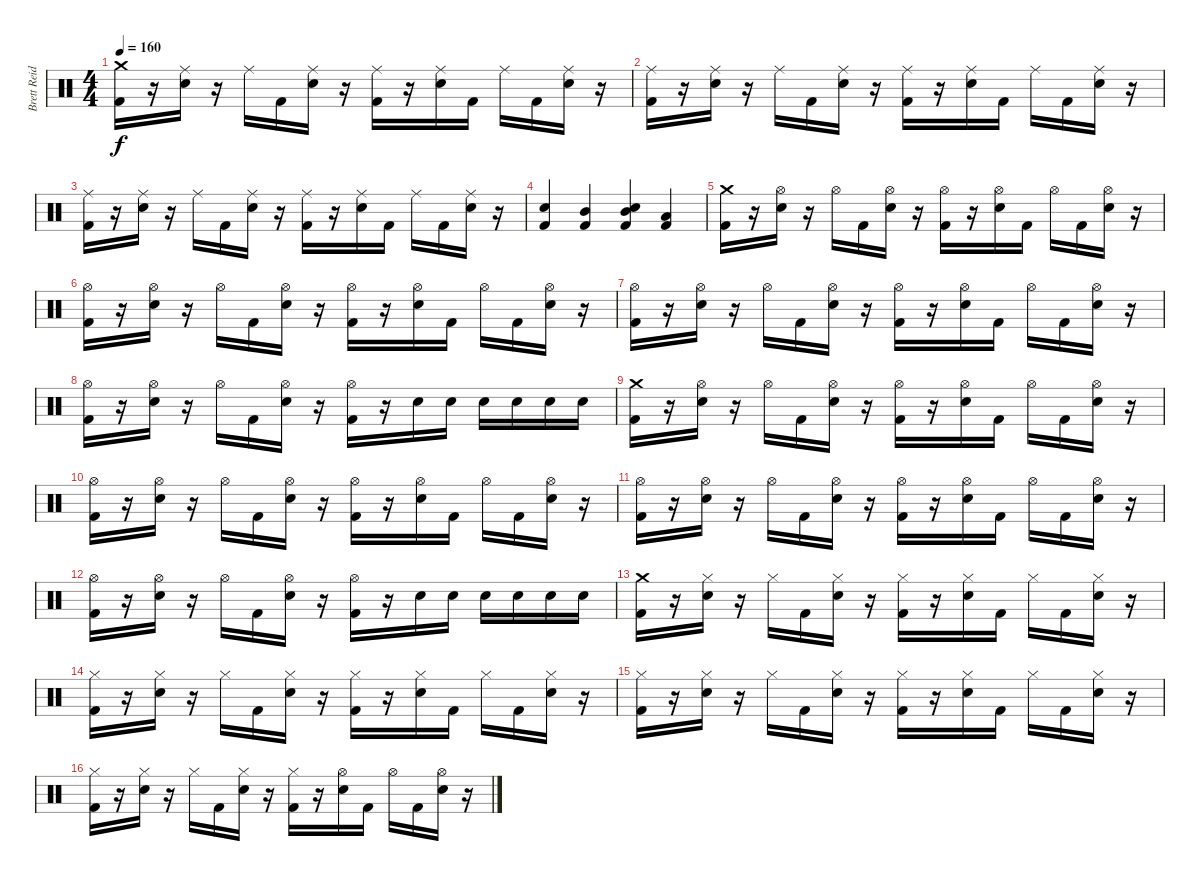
\track ("Brett Reid" "Brett Reid") {instrument percussion}
\staff {score}
\articulation defaults
\ts (4 4)
\tempo 160
\clef neutral
\ks c
("Crash medium (hit)" "Kick (hit) 2").16{dy f} r.16 ("Ride (middle)" "Snare (hit) 2").16 r.16 "Ride (middle)".16 "Kick (hit) 2".16 ("Ride (middle)" "Snare (hit) 2").16 r.16 ("Ride (middle)" "Kick (hit) 2").16 r.16 ("Ride (middle)" "Snare (hit) 2").16 "Kick (hit) 2".16 "Ride (middle)".16 "Kick (hit) 2".16 ("Ride (middle)" "Snare (hit) 2").16 r.16 |
("Ride (middle)" "Kick (hit) 2").16 r.16 ("Ride (middle)" "Snare (hit) 2").16 r.16 "Ride (middle)".16 "Kick (hit) 2".16 ("Ride (middle)" "Snare (hit) 2").16 r.16 ("Ride (middle)" "Kick (hit) 2").16 r.16 ("Ride (middle)" "Snare (hit) 2").16 "Kick (hit) 2".16 "Ride (middle)".16 "Kick (hit) 2".16 ("Ride (middle)" "Snare (hit) 2").16 r.16 |
("Ride (middle)" "Kick (hit) 2").16 r.16 ("Ride (middle)" "Snare (hit) 2").16 r.16 "Ride (middle)".16 "Kick (hit) 2".16 ("Ride (middle)" "Snare (hit) 2").16 r.16 ("Ride (middle)" "Kick (hit) 2").16 r.16 ("Ride (middle)" "Snare (hit) 2").16 "Kick (hit) 2".16 "Ride (middle)".16 "Kick (hit) 2".16 ("Ride (middle)" "Snare (hit) 2").16 r.16 |
("Snare (hit) 2" "Kick (hit) 2").4 ("Mid Tom (hit)" "Kick (hit) 2").4 ("Mid Tom (hit)" "Snare (hit) 2" "Kick (hit) 2").4 ("Low Floor Tom (hit)" "Kick (hit) 2").4 |
("Crash medium (hit)" "Kick (hit) 2").16 r.16 ("Hi-Hat (open)" "Snare (hit) 2").16 r.16 "Hi-Hat (open)".16 "Kick (hit) 2".16 ("Hi-Hat (open)" "Snare (hit) 2").16 r.16 ("Hi-Hat (open)" "Kick (hit) 2").16 r.16 ("Hi-Hat (open)" "Snare (hit) 2").16 "Kick (hit) 2".16 "Hi-Hat (open)".16 "Kick (hit) 2".16 ("Hi-Hat (open)" "Snare (hit) 2").16 r.16 |
("Hi-Hat (open)" "Kick (hit) 2").16 r.16 ("Hi-Hat (open)" "Snare (hit) 2").16 r.16 "Hi-Hat (open)".16 "Kick (hit) 2".16 ("Hi-Hat (open)" "Snare (hit) 2").16 r.16 ("Hi-Hat (open)" "Kick (hit) 2").16 r.16 ("Hi-Hat (open)" "Snare (hit) 2").16 "Kick (hit) 2".16 "Hi-Hat (open)".16 "Kick (hit) 2".16 ("Hi-Hat (open)" "Snare (hit) 2").16 r.16 |
("Hi-Hat (open)" "Kick (hit) 2").16 r.16 ("Hi-Hat (open)" "Snare (hit) 2").16 r.16 "Hi-Hat (open)".16 "Kick (hit) 2".16 ("Hi-Hat (open)" "Snare (hit) 2").16 r.16 ("Hi-Hat (open)" "Kick (hit) 2").16 r.16 ("Hi-Hat (open)" "Snare (hit) 2").16 "Kick (hit) 2".16 "Hi-Hat (open)".16 "Kick (hit) 2".16 ("Hi-Hat (open)" "Snare (hit) 2").16 r.16 |
("Hi-Hat (open)" "Kick (hit) 2").16 r.16 ("Hi-Hat (open)" "Snare (hit) 2").16 r.16 "Hi-Hat (open)".16 "Kick (hit) 2".16 ("Hi-Hat (open)" "Snare (hit) 2").16 r.16 ("Hi-Hat (open)" "Kick (hit) 2").16 r.16 "Snare (hit) 2".16 "Snare (hit) 2".16 "Snare (hit) 2".16 "Snare (hit) 2".16 "Snare (hit) 2".16 "Snare (hit) 2".16 |
("Crash medium (hit)" "Kick (hit) 2").16 r.16 ("Hi-Hat (open)" "Snare (hit) 2").16 r.16 "Hi-Hat (open)".16 "Kick (hit) 2".16 ("Hi-Hat (open)" "Snare (hit) 2").16 r.16 ("Hi-Hat (open)" "Kick (hit) 2").16 r.16 ("Hi-Hat (open)" "Snare (hit) 2").16 "Kick (hit) 2".16 "Hi-Hat (open)".16 "Kick (hit) 2".16 ("Hi-Hat (open)" "Snare (hit) 2").16 r.16 |
("Hi-Hat (open)" "Kick (hit) 2").16 r.16 ("Hi-Hat (open)" "Snare (hit) 2").16 r.16 "Hi-Hat (open)".16 "Kick (hit) 2".16 ("Hi-Hat (open)" "Snare (hit) 2").16 r.16 ("Hi-Hat (open)" "Kick (hit) 2").16 r.16 ("Hi-Hat (open)" "Snare (hit) 2").16 "Kick (hit) 2".16 "Hi-Hat (open)".16 "Kick (hit) 2".16 ("Hi-Hat (open)" "Snare (hit) 2").16 r.16 |
("Hi-Hat (open)" "Kick (hit) 2").16 r.16 ("Hi-Hat (open)" "Snare (hit) 2").16 r.16 "Hi-Hat (open)".16 "Kick (hit) 2".16 ("Hi-Hat (open)" "Snare (hit) 2").16 r.16 ("Hi-Hat (open)" "Kick (hit) 2").16 r.16 ("Hi-Hat (open)" "Snare (hit) 2").16 "Kick (hit) 2".16 "Hi-Hat (open)".16 "Kick (hit) 2".16 ("Hi-Hat (open)" "Snare (hit) 2").16 r.16 |
("Hi-Hat (open)" "Kick (hit) 2").16 r.16 ("Hi-Hat (open)" "Snare (hit) 2").16 r.16 "Hi-Hat (open)".16 "Kick (hit) 2".16 ("Hi-Hat (open)" "Snare (hit) 2").16 r.16 ("Hi-Hat (open)" "Kick (hit) 2").16 r.16 "Snare (hit) 2".16 "Snare (hit) 2".16 "Snare (hit) 2".16 "Snare (hit) 2".16 "Snare (hit) 2".16 "Snare (hit) 2".16 |
("Crash medium (hit)" "Kick (hit) 2").16 r.16 ("Hi-Hat (closed)" "Snare (hit) 2").16 r.16 "Hi-Hat (closed)".16 "Kick (hit) 2".16 ("Hi-Hat (closed)" "Snare (hit) 2").16 r.16 ("Hi-Hat (closed)" "Kick (hit) 2").16 r.16 ("Hi-Hat (closed)" "Snare (hit) 2").16 "Kick (hit) 2".16 "Hi-Hat (closed)".16 "Kick (hit) 2".16 ("Hi-Hat (closed)" "Snare (hit) 2").16 r.16 |
("Hi-Hat (closed)" "Kick (hit) 2").16 r.16 ("Hi-Hat (closed)" "Snare (hit) 2").16 r.16 "Hi-Hat (closed)".16 "Kick (hit) 2".16 ("Hi-Hat (closed)" "Snare (hit) 2").16 r.16 ("Hi-Hat (closed)" "Kick (hit) 2").16 r.16 ("Hi-Hat (closed)" "Snare (hit) 2").16 "Kick (hit) 2".16 "Hi-Hat (closed)".16 "Kick (hit) 2".16 ("Hi-Hat (closed)" "Snare (hit) 2").16 r.16 |
("Hi-Hat (closed)" "Kick (hit) 2").16 r.16 ("Hi-Hat (closed)" "Snare (hit) 2").16 r.16 "Hi-Hat (closed)".16 "Kick (hit) 2".16 ("Hi-Hat (closed)" "Snare (hit) 2").16 r.16 ("Hi-Hat (closed)" "Kick (hit) 2").16 r.16 ("Hi-Hat (closed)" "Snare (hit) 2").16 "Kick (hit) 2".16 "Hi-Hat (closed)".16 "Kick (hit) 2".16 ("Hi-Hat (closed)" "Snare (hit) 2").16 r.16 |
("Hi-Hat (closed)" "Kick (hit) 2").16 r.16 ("Hi-Hat (closed)" "Snare (hit) 2").16 r.16 "Hi-Hat (closed)".16 "Kick (hit) 2".16 ("Hi-Hat (closed)" "Snare (hit) 2").16 r.16 ("Hi-Hat (closed)" "Kick (hit) 2").16 r.16 ("Hi-Hat (open)" "Snare (hit) 2").16 "Kick (hit) 2".16 "Hi-Hat (open)".16 "Kick (hit) 2".16 ("Hi-Hat (open)" "Snare (hit) 2").16 r.16
